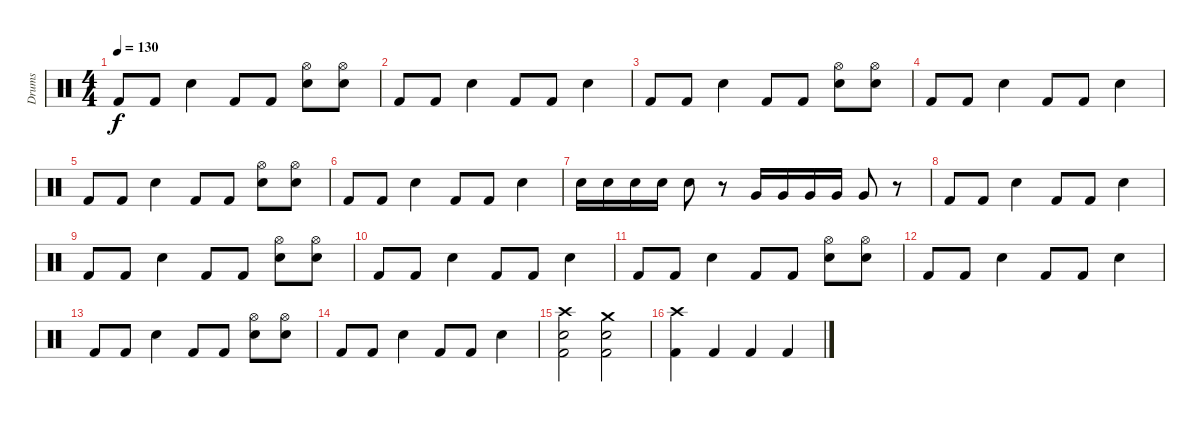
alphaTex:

\track ("Drums" "Drums") {instrument percussion}
\staff {score}
\articulation defaults
\ts (4 4)
\tempo 130
\clef neutral
\ks c "Kick (hit) 2".8{dy f} "Kick (hit) 2".8 "Snare (hit) 2".4 "Kick (hit) 2".8 "Kick (hit) 2".8
("Snare (hit) 2" "Hi-Hat (open)").8 ("Snare (hit) 2" "Hi-Hat (open)").8 |
"Kick (hit) 2".8 "Kick (hit) 2".8 "Snare (hit) 2".4 "Kick (hit) 2".8 "Kick (hit) 2".8 "Snare (hit) 2".4 |
"Kick (hit) 2".8 "Kick (hit) 2".8 "Snare (hit) 2".4 "Kick (hit) 2".8 "Kick (hit) 2".8 ("Snare (hit) 2" "Hi-Hat (open)").8 ("Snare (hit) 2" "Hi-Hat (open)").8 |
"Kick (hit) 2".8 "Kick (hit) 2".8 "Snare (hit) 2".4 "Kick (hit) 2".8 "Kick (hit) 2".8 "Snare (hit) 2".4 |
"Kick (hit) 2".8 "Kick (hit) 2".8 "Snare (hit) 2".4 "Kick (hit) 2".8 "Kick (hit) 2".8 ("Snare (hit) 2" "Hi-Hat (open)").8 ("Snare (hit) 2" "Hi-Hat (open)").8 |
"Kick (hit) 2".8 "Kick (hit) 2".8 "Snare (hit) 2".4 "Kick (hit) 2".8 "Kick (hit) 2".8 "Snare (hit) 2".4 |
"Snare (hit) 2".16 "Snare (hit) 2".16 "Snare (hit) 2".16 "Snare (hit) 2".16 "Snare (hit) 2".8 r.8 "Very Low Tom (hit)".16 "Very Low Tom (hit)".16 "Very Low Tom (hit)".16 "Very Low Tom (hit)".16 "Very Low Tom (hit)".8 r.8 |
"Kick (hit) 2".8 "Kick (hit) 2".8 "Snare (hit) 2".4 "Kick (hit) 2".8 "Kick (hit) 2".8 "Snare (hit) 2".4 |
"Kick (hit) 2".8 "Kick (hit) 2".8 "Snare (hit) 2".4 "Kick (hit) 2".8 "Kick (hit) 2".8 ("Snare (hit) 2" "Hi-Hat (open)").8 ("Snare (hit) 2" "Hi-Hat (open)").8 |
"Kick (hit) 2".8 "Kick (hit) 2".8 "Snare (hit) 2".4 "Kick (hit) 2".8 "Kick (hit) 2".8 "Snare (hit) 2".4 |
"Kick (hit) 2".8 "Kick (hit) 2".8 "Snare (hit) 2".4 "Kick (hit) 2".8 "Kick (hit) 2".8 ("Snare (hit) 2" "Hi-Hat (open)").8 ("Snare (hit) 2" "Hi-Hat (open)").8 |
"Kick (hit) 2".8 "Kick (hit) 2".8 "Snare (hit) 2".4 "Kick (hit) 2".8 "Kick (hit) 2".8 "Snare (hit) 2".4 |
"Kick (hit) 2".8 "Kick (hit) 2".8 "Snare (hit) 2".4 "Kick (hit) 2".8 "Kick (hit) 2".8 ("Snare (hit) 2" "Hi-Hat (open)").8 ("Snare (hit) 2" "Hi-Hat (open)").8 |
"Kick (hit) 2".8 "Kick (hit) 2".8 "Snare (hit) 2".4 "Kick (hit) 2".8 "Kick (hit) 2".8 "Snare (hit) 2".4 |
("Kick (hit) 2" "Snare (hit) 2" "Crash high (hit)").2 ("Kick (hit) 2" "Snare (hit) 2" "Crash medium (hit)").2 |
("Kick (hit) 2" "Crash high (hit)").4 "Kick (hit) 2".4 "Kick (hit) 2".4 "Kick (hit) 2".4
